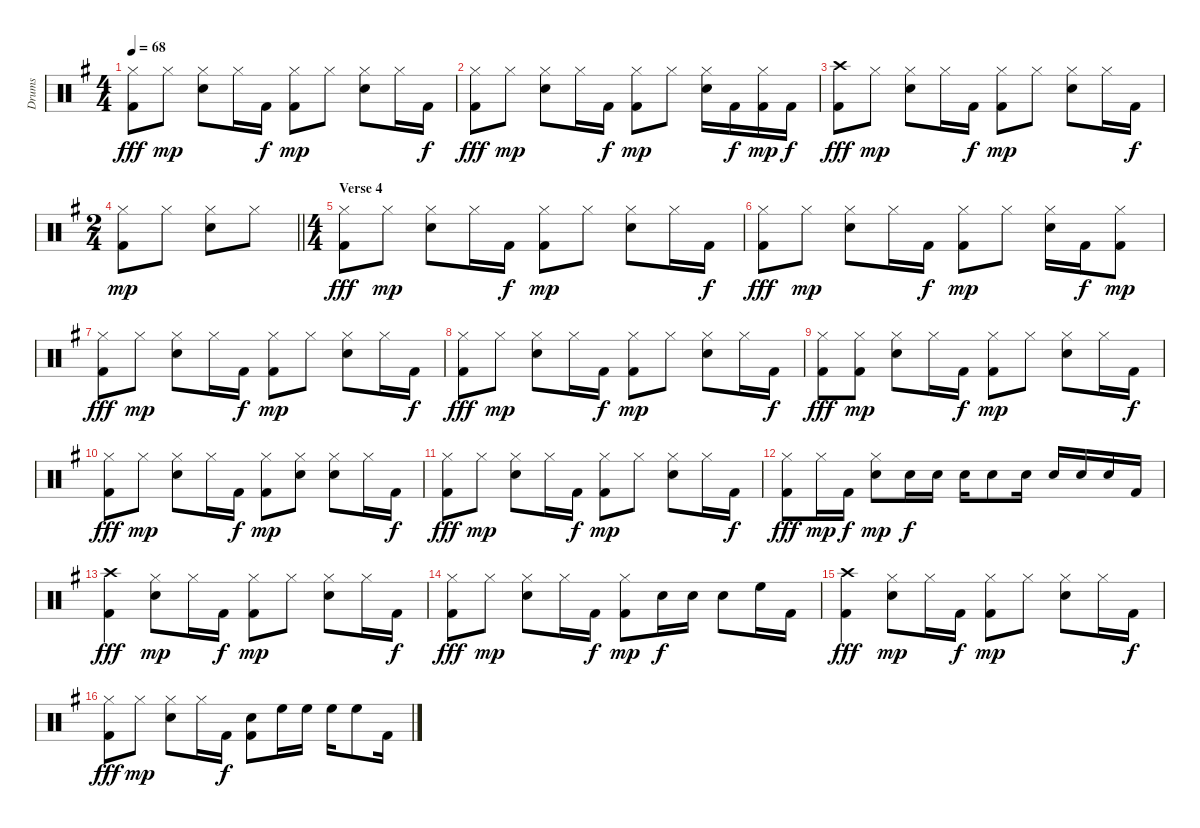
\track ("Drums" "Drums") {instrument percussion}
\staff {score}
\articulation defaults
\ts (4 4)
\tempo 68
\clef neutral
\ks g
("Hi-Hat (closed)" "Kick (hit) 2").8{dy fff} "Hi-Hat (closed)".8{dy mp} ("Hi-Hat (closed)" "Snare (hit) 2").8 "Hi-Hat (closed)".16 "Kick (hit) 2".16{dy f} ("Hi-Hat (closed)" "Kick (hit) 2").8{dy mp} "Hi-Hat (closed)".8 ("Hi-Hat (closed)" "Snare (hit) 2").8 "Hi-Hat (closed)".16 "Kick (hit) 2".16{dy f} |
("Hi-Hat (closed)" "Kick (hit) 2").8{dy fff} "Hi-Hat (closed)".8{dy mp} ("Hi-Hat (closed)" "Snare (hit) 2").8 "Hi-Hat (closed)".16 "Kick (hit) 2".16{dy f} ("Hi-Hat (closed)" "Kick (hit) 2").8{dy mp} "Hi-Hat (closed)".8 ("Hi-Hat (closed)" "Snare (hit) 2").16 "Kick (hit) 2".16{dy f} ("Hi-Hat (closed)" "Kick (hit) 2").16{dy mp} "Kick (hit) 2".16{dy f} |
("Crash high (hit)" "Kick (hit) 2").8{dy fff} "Hi-Hat (closed)".8{dy mp} ("Hi-Hat (closed)" "Snare (hit) 2").8 "Hi-Hat (closed)".16 "Kick (hit) 2".16{dy f} ("Hi-Hat (closed)" "Kick (hit) 2").8{dy mp} "Hi-Hat (closed)".8 ("Hi-Hat (closed)" "Snare (hit) 2").8 "Hi-Hat (closed)".16 "Kick (hit) 2".16{dy f} |
\ts (2 4)
\barLineRight lightlight
("Hi-Hat (closed)" "Kick (hit) 2").8{dy mp} "Hi-Hat (closed)".8 ("Hi-Hat (closed)" "Snare (hit) 2").8 "Hi-Hat (closed)".8 |
\ts (4 4)
\section ("" "Verse 4")
("Hi-Hat (closed)" "Kick (hit) 2").8{dy fff} "Hi-Hat (closed)".8{dy mp} ("Hi-Hat (closed)" "Snare (hit) 2").8 "Hi-Hat (closed)".16 "Kick (hit) 2".16{dy f} ("Hi-Hat (closed)" "Kick (hit) 2").8{dy mp} "Hi-Hat (closed)".8 ("Hi-Hat (closed)" "Snare (hit) 2").8 "Hi-Hat (closed)".16 "Kick (hit) 2".16{dy f} |
("Hi-Hat (closed)" "Kick (hit) 2").8{dy fff} "Hi-Hat (closed)".8{dy mp} ("Hi-Hat (closed)" "Snare (hit) 2").8 "Hi-Hat (closed)".16 "Kick (hit) 2".16{dy f} ("Hi-Hat (closed)" "Kick (hit) 2").8{dy mp} "Hi-Hat (closed)".8 ("Hi-Hat (closed)" "Snare (hit) 2").16 "Kick (hit) 2".16{dy f} ("Hi-Hat (closed)" "Kick (hit) 2").8{dy mp} |
("Hi-Hat (closed)" "Kick (hit) 2").8{dy fff} "Hi-Hat (closed)".8{dy mp} ("Hi-Hat (closed)" "Snare (hit) 2").8 "Hi-Hat (closed)".16 "Kick (hit) 2".16{dy f} ("Hi-Hat (closed)" "Kick (hit) 2").8{dy mp} "Hi-Hat (closed)".8 ("Hi-Hat (closed)" "Snare (hit) 2").8 "Hi-Hat (closed)".16 "Kick (hit) 2".16{dy f} |
("Hi-Hat (closed)" "Kick (hit) 2").8{dy fff} "Hi-Hat (closed)".8{dy mp} ("Hi-Hat (closed)" "Snare (hit) 2").8 "Hi-Hat (closed)".16 "Kick (hit) 2".16{dy f} ("Hi-Hat (closed)" "Kick (hit) 2").8{dy mp} "Hi-Hat (closed)".8 ("Hi-Hat (closed)" "Snare (hit) 2").8 "Hi-Hat (closed)".16 "Kick (hit) 2".16{dy f} |
("Hi-Hat (closed)" "Kick (hit) 2").8{dy fff} ("Hi-Hat (closed)" "Kick (hit) 2").8{dy mp} ("Hi-Hat (closed)" "Snare (hit) 2").8 "Hi-Hat (closed)".16 "Kick (hit) 2".16{dy f} ("Hi-Hat (closed)" "Kick (hit) 2").8{dy mp} "Hi-Hat (closed)".8 ("Hi-Hat (closed)" "Snare (hit) 2").8 "Hi-Hat (closed)".16 "Kick (hit) 2".16{dy f} |
("Hi-Hat (closed)" "Kick (hit) 2").8{dy fff} "Hi-Hat (closed)".8{dy mp} ("Hi-Hat (closed)" "Snare (hit) 2").8 "Hi-Hat (closed)".16 "Kick (hit) 2".16{dy f} ("Hi-Hat (closed)" "Kick (hit) 2").8{dy mp} ("Hi-Hat (closed)" "Snare (hit) 2").8 ("Hi-Hat (closed)" "Snare (hit) 2").8 "Hi-Hat (closed)".16 "Kick (hit) 2".16{dy f} |
("Hi-Hat (closed)" "Kick (hit) 2").8{dy fff} "Hi-Hat (closed)".8{dy mp} ("Hi-Hat (closed)" "Snare (hit) 2").8 "Hi-Hat (closed)".16 "Kick (hit) 2".16{dy f} ("Hi-Hat (closed)" "Kick (hit) 2").8{dy mp} "Hi-Hat (closed)".8 ("Hi-Hat (closed)" "Snare (hit) 2").8 "Hi-Hat (closed)".16 "Kick (hit) 2".16{dy f} |
("Hi-Hat (closed)" "Kick (hit) 2").8{dy fff} "Hi-Hat (closed)".16{dy mp} "Kick (hit) 2".16{dy f} ("Hi-Hat (closed)" "Snare (hit) 2").8{dy mp} "Snare (hit) 2".16{dy f} "Snare (hit) 2".16 "Snare (hit) 2".16 "Snare (hit) 2".8 "Snare (hit) 2".16 "Snare (hit) 2".16 "Snare (hit) 2".16 "Snare (hit) 2".16 "Kick (hit) 2".16 |
("Crash high (hit)" "Kick (hit) 2").4{dy fff} ("Hi-Hat (closed)" "Snare (hit) 2").8{dy mp} "Hi-Hat (closed)".16 "Kick (hit) 2".16{dy f} ("Hi-Hat (closed)" "Kick (hit) 2").8{dy mp} "Hi-Hat (closed)".8 ("Hi-Hat (closed)" "Snare (hit) 2").8 "Hi-Hat (closed)".16 "Kick (hit) 2".16{dy f} |
("Hi-Hat (closed)" "Kick (hit) 2").8{dy fff} "Hi-Hat (closed)".8{dy mp} ("Hi-Hat (closed)" "Snare (hit) 2").8 "Hi-Hat (closed)".16 "Kick (hit) 2".16{dy f} ("Hi-Hat (closed)" "Kick (hit) 2").8{dy mp} "Snare (hit) 2".16{dy f} "Snare (hit) 2".16 "Snare (hit) 2".8 "High Floor Tom (hit)".16 "Kick (hit) 2".16 |
("Crash high (hit)" "Kick (hit) 2").4{dy fff} ("Hi-Hat (closed)" "Snare (hit) 2").8{dy mp} "Hi-Hat (closed)".16 "Kick (hit) 2".16{dy f} ("Hi-Hat (closed)" "Kick (hit) 2").8{dy mp} "Hi-Hat (closed)".8 ("Hi-Hat (closed)" "Snare (hit) 2").8 "Hi-Hat (closed)".16 "Kick (hit) 2".16{dy f} |
("Hi-Hat (closed)" "Kick (hit) 2").8{dy fff} "Hi-Hat (closed)".8{dy mp} ("Hi-Hat (closed)" "Snare (hit) 2").8 "Hi-Hat (closed)".16 "Kick (hit) 2".16{dy f} ("Snare (hit) 2" "Kick (hit) 2").8 "High Floor Tom (hit)".16 "High Floor Tom (hit)".16 "High Floor Tom (hit)".16 "High Floor Tom (hit)".8 "Kick (hit) 2".16
